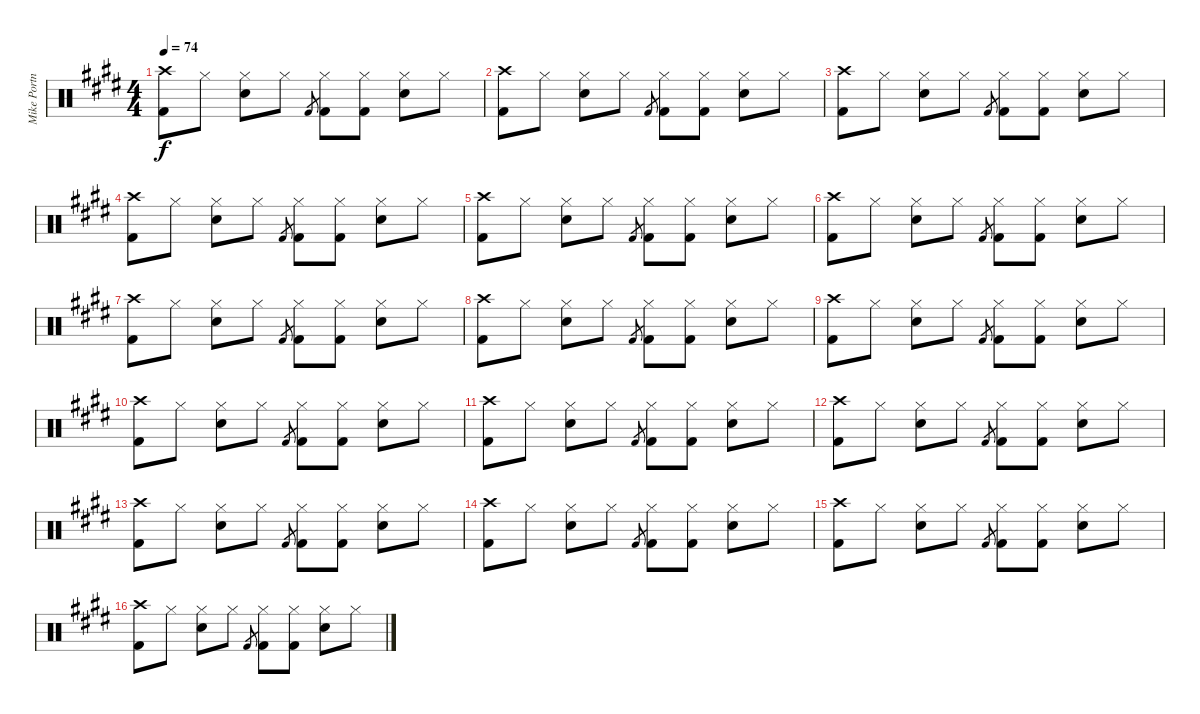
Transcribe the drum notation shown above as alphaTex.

\track ("Mike Portnoy" "Mike Portn") {instrument percussion}
\staff {score}
\articulation defaults
\ts (4 4)
\tempo 74
\clef neutral
\ks e
("Crash high (hit)" "Kick (hit) 2").8{dy f} "Hi-Hat (closed)".8 ("Hi-Hat (closed)" "Snare (hit) 2").8 "Hi-Hat (closed)".8 "Kick (hit) 2".8{gr} ("Hi-Hat (closed)" "Kick (hit) 2").8 ("Hi-Hat (closed)" "Kick (hit) 2").8 ("Hi-Hat (closed)" "Snare (hit) 2").8 "Hi-Hat (closed)".8 |
("Crash high (hit)" "Kick (hit) 2").8 "Hi-Hat (closed)".8 ("Hi-Hat (closed)" "Snare (hit) 2").8 "Hi-Hat (closed)".8 "Kick (hit) 2".8{gr} ("Hi-Hat (closed)" "Kick (hit) 2").8 ("Hi-Hat (closed)" "Kick (hit) 2").8 ("Hi-Hat (closed)" "Snare (hit) 2").8 "Hi-Hat (closed)".8 |
("Crash high (hit)" "Kick (hit) 2").8 "Hi-Hat (closed)".8 ("Hi-Hat (closed)" "Snare (hit) 2").8 "Hi-Hat (closed)".8 "Kick (hit) 2".8{gr} ("Hi-Hat (closed)" "Kick (hit) 2").8 ("Hi-Hat (closed)" "Kick (hit) 2").8 ("Hi-Hat (closed)" "Snare (hit) 2").8 "Hi-Hat (closed)".8 |
("Crash high (hit)" "Kick (hit) 2").8 "Hi-Hat (closed)".8 ("Hi-Hat (closed)" "Snare (hit) 2").8 "Hi-Hat (closed)".8 "Kick (hit) 2".8{gr} ("Hi-Hat (closed)" "Kick (hit) 2").8 ("Hi-Hat (closed)" "Kick (hit) 2").8 ("Hi-Hat (closed)" "Snare (hit) 2").8 "Hi-Hat (closed)".8 |
("Crash high (hit)" "Kick (hit) 2").8 "Hi-Hat (closed)".8 ("Hi-Hat (closed)" "Snare (hit) 2").8 "Hi-Hat (closed)".8 "Kick (hit) 2".8{gr} ("Hi-Hat (closed)" "Kick (hit) 2").8 ("Hi-Hat (closed)" "Kick (hit) 2").8 ("Hi-Hat (closed)" "Snare (hit) 2").8 "Hi-Hat (closed)".8 |
("Crash high (hit)" "Kick (hit) 2").8 "Hi-Hat (closed)".8 ("Hi-Hat (closed)" "Snare (hit) 2").8 "Hi-Hat (closed)".8 "Kick (hit) 2".8{gr} ("Hi-Hat (closed)" "Kick (hit) 2").8 ("Hi-Hat (closed)" "Kick (hit) 2").8 ("Hi-Hat (closed)" "Snare (hit) 2").8 "Hi-Hat (closed)".8 |
("Crash high (hit)" "Kick (hit) 2").8 "Hi-Hat (closed)".8 ("Hi-Hat (closed)" "Snare (hit) 2").8 "Hi-Hat (closed)".8 "Kick (hit) 2".8{gr} ("Hi-Hat (closed)" "Kick (hit) 2").8 ("Hi-Hat (closed)" "Kick (hit) 2").8 ("Hi-Hat (closed)" "Snare (hit) 2").8 "Hi-Hat (closed)".8 |
("Crash high (hit)" "Kick (hit) 2").8 "Hi-Hat (closed)".8 ("Hi-Hat (closed)" "Snare (hit) 2").8 "Hi-Hat (closed)".8 "Kick (hit) 2".8{gr} ("Hi-Hat (closed)" "Kick (hit) 2").8 ("Hi-Hat (closed)" "Kick (hit) 2").8 ("Hi-Hat (closed)" "Snare (hit) 2").8 "Hi-Hat (closed)".8 |
("Crash high (hit)" "Kick (hit) 2").8 "Hi-Hat (closed)".8 ("Hi-Hat (closed)" "Snare (hit) 2").8 "Hi-Hat (closed)".8 "Kick (hit) 2".8{gr} ("Hi-Hat (closed)" "Kick (hit) 2").8 ("Hi-Hat (closed)" "Kick (hit) 2").8 ("Hi-Hat (closed)" "Snare (hit) 2").8 "Hi-Hat (closed)".8 |
("Crash high (hit)" "Kick (hit) 2").8 "Hi-Hat (closed)".8 ("Hi-Hat (closed)" "Snare (hit) 2").8 "Hi-Hat (closed)".8 "Kick (hit) 2".8{gr} ("Hi-Hat (closed)" "Kick (hit) 2").8 ("Hi-Hat (closed)" "Kick (hit) 2").8 ("Hi-Hat (closed)" "Snare (hit) 2").8 "Hi-Hat (closed)".8 |
("Crash high (hit)" "Kick (hit) 2").8 "Hi-Hat (closed)".8 ("Hi-Hat (closed)" "Snare (hit) 2").8 "Hi-Hat (closed)".8 "Kick (hit) 2".8{gr} ("Hi-Hat (closed)" "Kick (hit) 2").8 ("Hi-Hat (closed)" "Kick (hit) 2").8 ("Hi-Hat (closed)" "Snare (hit) 2").8 "Hi-Hat (closed)".8 |
("Crash high (hit)" "Kick (hit) 2").8 "Hi-Hat (closed)".8 ("Hi-Hat (closed)" "Snare (hit) 2").8 "Hi-Hat (closed)".8 "Kick (hit) 2".8{gr} ("Hi-Hat (closed)" "Kick (hit) 2").8 ("Hi-Hat (closed)" "Kick (hit) 2").8 ("Hi-Hat (closed)" "Snare (hit) 2").8 "Hi-Hat (closed)".8 |
("Crash high (hit)" "Kick (hit) 2").8 "Hi-Hat (closed)".8 ("Hi-Hat (closed)" "Snare (hit) 2").8 "Hi-Hat (closed)".8 "Kick (hit) 2".8{gr} ("Hi-Hat (closed)" "Kick (hit) 2").8 ("Hi-Hat (closed)" "Kick (hit) 2").8 ("Hi-Hat (closed)" "Snare (hit) 2").8 "Hi-Hat (closed)".8 |
("Crash high (hit)" "Kick (hit) 2").8 "Hi-Hat (closed)".8 ("Hi-Hat (closed)" "Snare (hit) 2").8 "Hi-Hat (closed)".8 "Kick (hit) 2".8{gr} ("Hi-Hat (closed)" "Kick (hit) 2").8 ("Hi-Hat (closed)" "Kick (hit) 2").8 ("Hi-Hat (closed)" "Snare (hit) 2").8 "Hi-Hat (closed)".8 |
("Crash high (hit)" "Kick (hit) 2").8 "Hi-Hat (closed)".8 ("Hi-Hat (closed)" "Snare (hit) 2").8 "Hi-Hat (closed)".8 "Kick (hit) 2".8{gr} ("Hi-Hat (closed)" "Kick (hit) 2").8 ("Hi-Hat (closed)" "Kick (hit) 2").8 ("Hi-Hat (closed)" "Snare (hit) 2").8 "Hi-Hat (closed)".8 |
("Crash high (hit)" "Kick (hit) 2").8 "Hi-Hat (closed)".8 ("Hi-Hat (closed)" "Snare (hit) 2").8 "Hi-Hat (closed)".8 "Kick (hit) 2".8{gr} ("Hi-Hat (closed)" "Kick (hit) 2").8 ("Hi-Hat (closed)" "Kick (hit) 2").8 ("Hi-Hat (closed)" "Snare (hit) 2").8 "Hi-Hat (closed)".8
